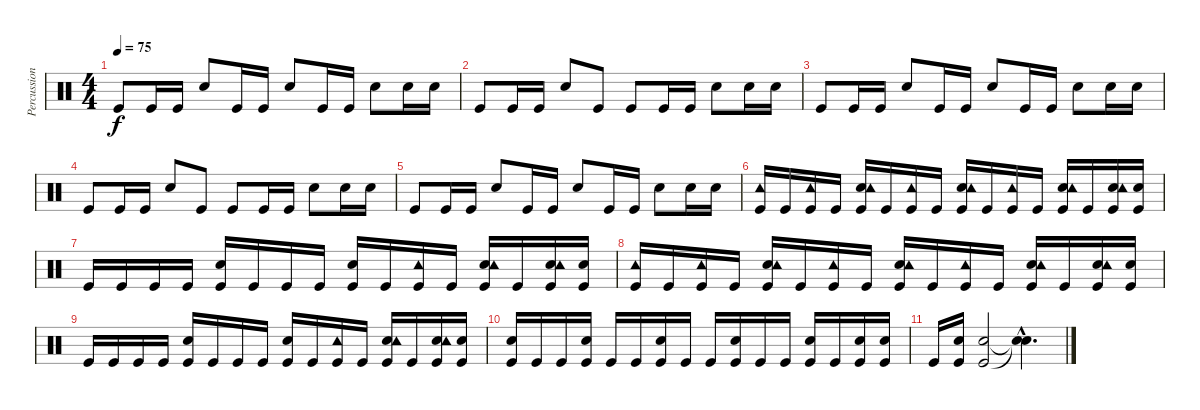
\track ("Percussioni" "Percussion") {instrument percussion}
\staff {score}
\articulation defaults
\ts (4 4)
\tempo 75
\clef neutral
\ks c "Kick (hit)".8{dy f} "Kick (hit)".16 "Kick (hit)".16 "Snare (hit) 2".8 "Kick (hit)".16 "Kick (hit)".16 "Snare (hit) 2".8 "Kick (hit)".16 "Kick (hit)".16 "Snare (hit) 2".8 "Snare (hit) 2".16 "Snare (hit) 2".16
|
"Kick (hit)".8 "Kick (hit)".16 "Kick (hit)".16 "Snare (hit) 2".8 "Kick (hit)".8 "Kick (hit)".8 "Kick (hit)".16 "Kick (hit)".16 "Snare (hit) 2".8 "Snare (hit) 2".16 "Snare (hit) 2".16 |
"Kick (hit)".8 "Kick (hit)".16 "Kick (hit)".16 "Snare (hit) 2".8 "Kick (hit)".16 "Kick (hit)".16 "Snare (hit) 2".8 "Kick (hit)".16 "Kick (hit)".16 "Snare (hit) 2".8 "Snare (hit) 2".16 "Snare (hit) 2".16 |
"Kick (hit)".8 "Kick (hit)".16 "Kick (hit)".16 "Snare (hit) 2".8 "Kick (hit)".8 "Kick (hit)".8 "Kick (hit)".16 "Kick (hit)".16 "Snare (hit) 2".8 "Snare (hit) 2".16 "Snare (hit) 2".16 |
"Kick (hit)".8 "Kick (hit)".16 "Kick (hit)".16 "Snare (hit) 2".8 "Kick (hit)".16 "Kick (hit)".16 "Snare (hit) 2".8 "Kick (hit)".16 "Kick (hit)".16 "Snare (hit) 2".8 "Snare (hit) 2".16 "Snare (hit) 2".16 |
("Kick (hit)" "Tambourine (hit)").16 "Kick (hit)".16 ("Kick (hit)" "Tambourine (hit)").16 "Kick (hit)".16 ("Snare (hit) 2" "Kick (hit)" "Tambourine (hit)").16 "Kick (hit)".16 ("Kick (hit)" "Tambourine (hit)").16 "Kick (hit)".16 ("Snare (hit) 2" "Kick (hit)" "Tambourine (hit)").16 "Kick (hit)".16 ("Kick (hit)" "Tambourine (hit)").16 "Kick (hit)".16 ("Snare (hit) 2" "Kick (hit)" "Tambourine (hit)").16 "Kick (hit)".16 ("Snare (hit) 2" "Kick (hit)" "Tambourine (hit)").16 ("Snare (hit) 2" "Kick (hit)").16 |
"Kick (hit)".16 "Kick (hit)".16 "Kick (hit)".16 "Kick (hit)".16 ("Snare (hit) 2" "Kick (hit)").16 "Kick (hit)".16 "Kick (hit)".16 "Kick (hit)".16 ("Snare (hit) 2" "Kick (hit)").16 "Kick (hit)".16 ("Kick (hit)" "Tambourine (hit)").16 "Kick (hit)".16 ("Snare (hit) 2" "Kick (hit)" "Tambourine (hit)").16 "Kick (hit)".16 ("Snare (hit) 2" "Kick (hit)" "Tambourine (hit)").16 ("Snare (hit) 2" "Kick (hit)").16 |
("Kick (hit)" "Tambourine (hit)").16 "Kick (hit)".16 ("Kick (hit)" "Tambourine (hit)").16 "Kick (hit)".16 ("Snare (hit) 2" "Kick (hit)" "Tambourine (hit)").16 "Kick (hit)".16 ("Kick (hit)" "Tambourine (hit)").16 "Kick (hit)".16 ("Snare (hit) 2" "Kick (hit)" "Tambourine (hit)").16 "Kick (hit)".16 ("Kick (hit)" "Tambourine (hit)").16 "Kick (hit)".16 ("Snare (hit) 2" "Kick (hit)" "Tambourine (hit)").16 "Kick (hit)".16 ("Snare (hit) 2" "Kick (hit)" "Tambourine (hit)").16 ("Snare (hit) 2" "Kick (hit)").16 |
"Kick (hit)".16 "Kick (hit)".16 "Kick (hit)".16 "Kick (hit)".16 ("Snare (hit) 2" "Kick (hit)").16 "Kick (hit)".16 "Kick (hit)".16 "Kick (hit)".16 ("Snare (hit) 2" "Kick (hit)").16 "Kick (hit)".16 ("Kick (hit)" "Tambourine (hit)").16 "Kick (hit)".16 ("Snare (hit) 2" "Kick (hit)" "Tambourine (hit)").16 "Kick (hit)".16 ("Snare (hit) 2" "Kick (hit)" "Tambourine (hit)").16 ("Snare (hit) 2" "Kick (hit)").16 |
("Kick (hit)" "Snare (hit) 2").16 "Kick (hit)".16 "Kick (hit)".16 ("Kick (hit)" "Snare (hit) 2").16 "Kick (hit)".16 "Kick (hit)".16 ("Kick (hit)" "Snare (hit) 2").16 "Kick (hit)".16 "Kick (hit)".16 ("Kick (hit)" "Snare (hit) 2").16 "Kick (hit)".16 "Kick (hit)".16 ("Kick (hit)" "Snare (hit) 2").16 "Kick (hit)".16 ("Kick (hit)" "Snare (hit) 2").16 ("Kick (hit)" "Snare (hit) 2").16 |
"Kick (hit)".16 ("Kick (hit)" "Snare (hit) 2").16 ("Kick (hit)" "Snare (hit) 2").2 ("Snare (hit)"{hac t} "Snare (hit)"{hac t}).4{d}
